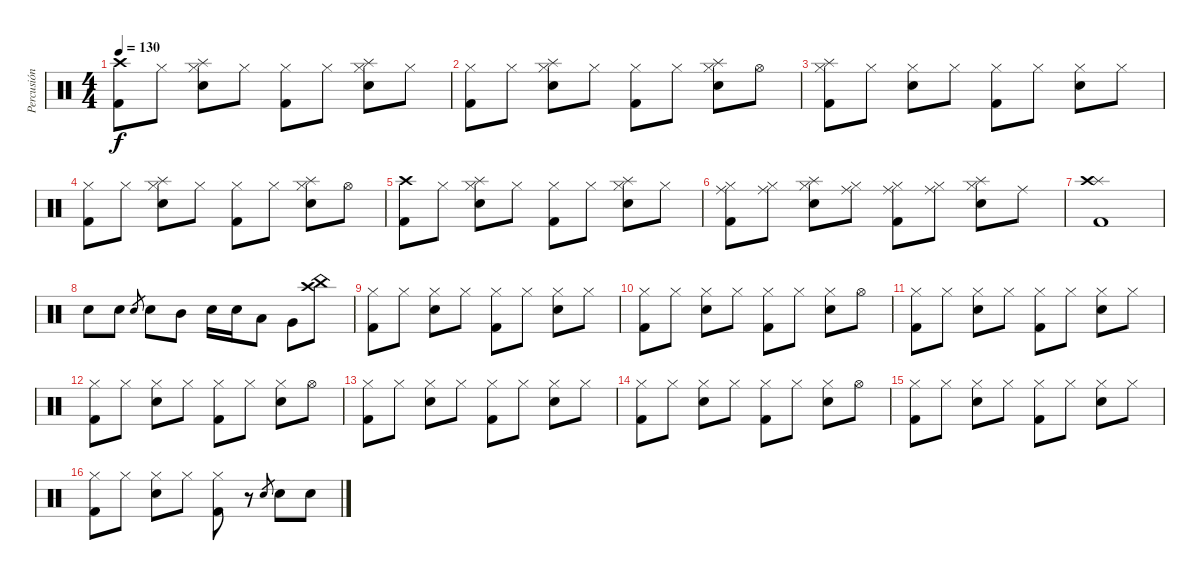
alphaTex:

\track ("Percusión" "Percusión") {instrument percussion}
\staff {score}
\articulation defaults
\ts (4 4)
\tempo 130
\clef neutral
\ks c
("Crash high (hit)" "Kick (hit) 2").8{dy f} "Hi-Hat (closed)".8 ("Hi-Hat (closed)" "Snare (hit) 2" "Splash (hit)").8 "Hi-Hat (closed)".8 ("Hi-Hat (closed)" "Kick (hit) 2").8 "Hi-Hat (closed)".8 ("Hi-Hat (closed)" "Snare (hit) 2" "Splash (hit)").8 "Hi-Hat (closed)".8 |
("Hi-Hat (closed)" "Kick (hit) 2").8 "Hi-Hat (closed)".8 ("Hi-Hat (closed)" "Snare (hit) 2" "Splash (hit)").8 "Hi-Hat (closed)".8 ("Hi-Hat (closed)" "Kick (hit) 2").8 "Hi-Hat (closed)".8 ("Hi-Hat (closed)" "Snare (hit) 2" "Splash (hit)").8 "Hi-Hat (open)".8 |
("Hi-Hat (closed)" "Kick (hit) 2" "Splash (hit)").8 "Hi-Hat (closed)".8 ("Hi-Hat (closed)" "Snare (hit) 2").8 "Hi-Hat (closed)".8 ("Hi-Hat (closed)" "Kick (hit) 2").8 "Hi-Hat (closed)".8 ("Hi-Hat (closed)" "Snare (hit) 2").8 "Hi-Hat (closed)".8 |
("Hi-Hat (closed)" "Kick (hit) 2").8 "Hi-Hat (closed)".8 ("Hi-Hat (closed)" "Snare (hit) 2" "Splash (hit)").8 "Hi-Hat (closed)".8 ("Hi-Hat (closed)" "Kick (hit) 2").8 "Hi-Hat (closed)".8 ("Hi-Hat (closed)" "Snare (hit) 2" "Splash (hit)").8 "Hi-Hat (open)".8 |
("Crash high (hit)" "Kick (hit) 2").8 "Hi-Hat (closed)".8 ("Hi-Hat (closed)" "Snare (hit) 2" "Splash (hit)").8 "Hi-Hat (closed)".8 ("Hi-Hat (closed)" "Kick (hit) 2").8 "Hi-Hat (closed)".8 ("Hi-Hat (closed)" "Snare (hit) 2" "Splash (hit)").8 "Hi-Hat (closed)".8 |
("Hi-Hat (closed)" "Kick (hit) 2" "Ride (middle)").8 ("Hi-Hat (closed)" "Ride (middle)").8 ("Hi-Hat (closed)" "Snare (hit) 2" "Splash (hit)").8 ("Hi-Hat (closed)" "Ride (middle)").8 ("Hi-Hat (closed)" "Kick (hit) 2" "Ride (middle)").8 ("Hi-Hat (closed)" "Ride (middle)").8 ("Hi-Hat (closed)" "Snare (hit) 2" "Splash (hit)").8 "Ride (middle)".8 |
("Splash (hit)" "Crash high (hit)" "Kick (hit) 2").1 |
"Snare (hit) 2".8 "Snare (hit) 2".8 "Snare (hit) 2".8{gr} "Snare (hit) 2".8 "Mid Tom (hit)".8 "Snare (hit) 2".16 "Snare (hit) 2".16 "Low Tom (hit)".8 "Very Low Tom (hit)".8 ("Crash high (hit)" "China (hit)").8 |
("Hi-Hat (closed)" "Kick (hit) 2").8 "Hi-Hat (closed)".8 ("Hi-Hat (closed)" "Snare (hit) 2").8 "Hi-Hat (closed)".8 ("Hi-Hat (closed)" "Kick (hit) 2").8 "Hi-Hat (closed)".8 ("Hi-Hat (closed)" "Snare (hit) 2").8 "Hi-Hat (closed)".8 |
("Hi-Hat (closed)" "Kick (hit) 2").8 "Hi-Hat (closed)".8 ("Hi-Hat (closed)" "Snare (hit) 2").8 "Hi-Hat (closed)".8 ("Hi-Hat (closed)" "Kick (hit) 2").8 "Hi-Hat (closed)".8 ("Hi-Hat (closed)" "Snare (hit) 2").8 "Hi-Hat (open)".8 |
("Hi-Hat (closed)" "Kick (hit) 2").8 "Hi-Hat (closed)".8 ("Hi-Hat (closed)" "Snare (hit) 2").8 "Hi-Hat (closed)".8 ("Hi-Hat (closed)" "Kick (hit) 2").8 "Hi-Hat (closed)".8 ("Hi-Hat (closed)" "Snare (hit) 2").8 "Hi-Hat (closed)".8 |
("Hi-Hat (closed)" "Kick (hit) 2").8 "Hi-Hat (closed)".8 ("Hi-Hat (closed)" "Snare (hit) 2").8 "Hi-Hat (closed)".8 ("Hi-Hat (closed)" "Kick (hit) 2").8 "Hi-Hat (closed)".8 ("Hi-Hat (closed)" "Snare (hit) 2").8 "Hi-Hat (open)".8 |
("Hi-Hat (closed)" "Kick (hit) 2").8 "Hi-Hat (closed)".8 ("Hi-Hat (closed)" "Snare (hit) 2").8 "Hi-Hat (closed)".8 ("Hi-Hat (closed)" "Kick (hit) 2").8 "Hi-Hat (closed)".8 ("Hi-Hat (closed)" "Snare (hit) 2").8 "Hi-Hat (closed)".8 |
("Hi-Hat (closed)" "Kick (hit) 2").8 "Hi-Hat (closed)".8 ("Hi-Hat (closed)" "Snare (hit) 2").8 "Hi-Hat (closed)".8 ("Hi-Hat (closed)" "Kick (hit) 2").8 "Hi-Hat (closed)".8 ("Hi-Hat (closed)" "Snare (hit) 2").8 "Hi-Hat (open)".8 |
("Hi-Hat (closed)" "Kick (hit) 2").8 "Hi-Hat (closed)".8 ("Hi-Hat (closed)" "Snare (hit) 2").8 "Hi-Hat (closed)".8 ("Hi-Hat (closed)" "Kick (hit) 2").8 "Hi-Hat (closed)".8 ("Hi-Hat (closed)" "Snare (hit) 2").8 "Hi-Hat (closed)".8 |
("Hi-Hat (closed)" "Kick (hit) 2").8 "Hi-Hat (closed)".8 ("Hi-Hat (closed)" "Snare (hit) 2").8 "Hi-Hat (closed)".8 ("Hi-Hat (closed)" "Kick (hit) 2").8 r.8 "Snare (hit) 2".8{gr} "Snare (hit) 2".8 "Snare (hit) 2".8
